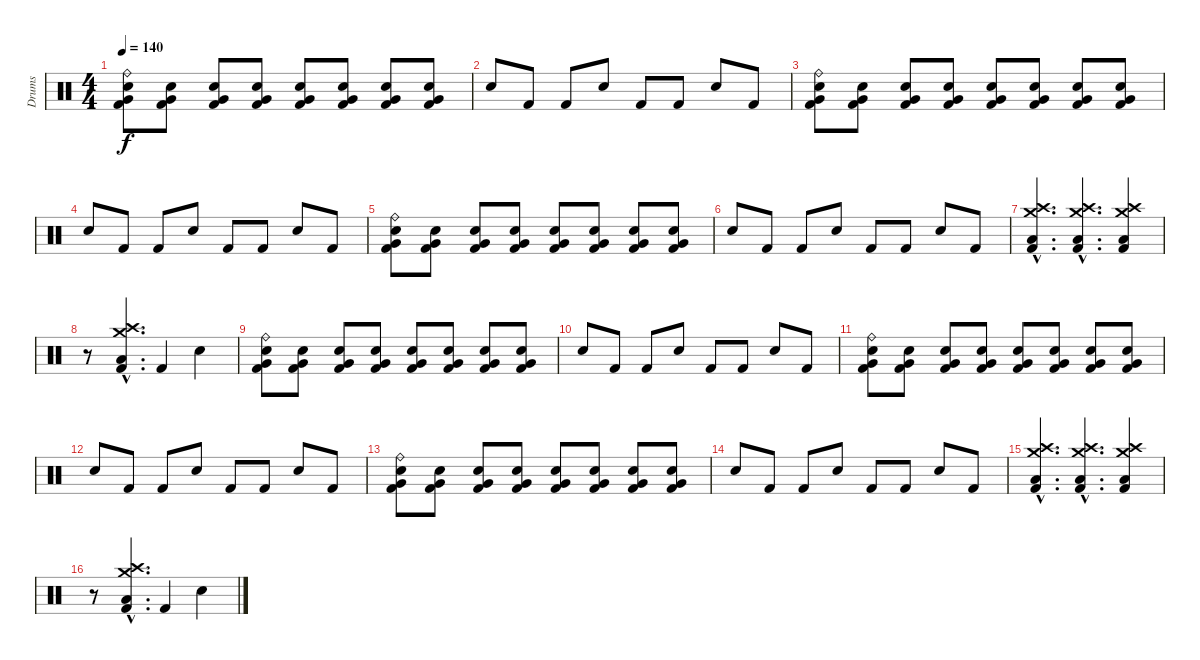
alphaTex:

\track ("Drums" "Drums") {instrument percussion}
\staff {score}
\articulation defaults
\ts (4 4)
\tempo 140
\clef neutral
\ks c
("Ride (bell)" "Snare (hit) 2" "Very Low Tom (hit)" "Kick (hit) 2").8{dy f} ("Snare (hit) 2" "Very Low Tom (hit)" "Kick (hit) 2").8 ("Snare (hit) 2" "Very Low Tom (hit)" "Kick (hit) 2").8 ("Snare (hit) 2" "Very Low Tom (hit)" "Kick (hit) 2").8 ("Snare (hit) 2" "Very Low Tom (hit)" "Kick (hit) 2").8 ("Snare (hit) 2" "Very Low Tom (hit)" "Kick (hit) 2").8 ("Snare (hit) 2" "Very Low Tom (hit)" "Kick (hit) 2").8 ("Snare (hit) 2" "Very Low Tom (hit)" "Kick (hit) 2").8 |
"Snare (hit) 2".8 "Kick (hit) 2".8 "Kick (hit) 2".8 "Snare (hit) 2".8 "Kick (hit) 2".8 "Kick (hit) 2".8 "Snare (hit) 2".8 "Kick (hit) 2".8 |
("Ride (bell)" "Snare (hit) 2" "Very Low Tom (hit)" "Kick (hit) 2").8 ("Snare (hit) 2" "Very Low Tom (hit)" "Kick (hit) 2").8 ("Snare (hit) 2" "Very Low Tom (hit)" "Kick (hit) 2").8 ("Snare (hit) 2" "Very Low Tom (hit)" "Kick (hit) 2").8 ("Snare (hit) 2" "Very Low Tom (hit)" "Kick (hit) 2").8 ("Snare (hit) 2" "Very Low Tom (hit)" "Kick (hit) 2").8 ("Snare (hit) 2" "Very Low Tom (hit)" "Kick (hit) 2").8 ("Snare (hit) 2" "Very Low Tom (hit)" "Kick (hit) 2").8 |
"Snare (hit) 2".8 "Kick (hit) 2".8 "Kick (hit) 2".8 "Snare (hit) 2".8 "Kick (hit) 2".8 "Kick (hit) 2".8 "Snare (hit) 2".8 "Kick (hit) 2".8 |
("Ride (bell)" "Snare (hit) 2" "Very Low Tom (hit)" "Kick (hit) 2").8 ("Snare (hit) 2" "Very Low Tom (hit)" "Kick (hit) 2").8 ("Snare (hit) 2" "Very Low Tom (hit)" "Kick (hit) 2").8 ("Snare (hit) 2" "Very Low Tom (hit)" "Kick (hit) 2").8 ("Snare (hit) 2" "Very Low Tom (hit)" "Kick (hit) 2").8 ("Snare (hit) 2" "Very Low Tom (hit)" "Kick (hit) 2").8 ("Snare (hit) 2" "Very Low Tom (hit)" "Kick (hit) 2").8 ("Snare (hit) 2" "Very Low Tom (hit)" "Kick (hit) 2").8 |
"Snare (hit) 2".8 "Kick (hit) 2".8 "Kick (hit) 2".8 "Snare (hit) 2".8 "Kick (hit) 2".8 "Kick (hit) 2".8 "Snare (hit) 2".8 "Kick (hit) 2".8 |
("Crash high (hit)"{hac} "Crash medium (hit)"{hac} "Low Floor Tom (hit)"{hac} "Kick (hit) 2"{hac}).4{d volume 16} ("Crash high (hit)"{hac} "Crash medium (hit)"{hac} "Low Floor Tom (hit)"{hac} "Kick (hit) 2"{hac}).4{d} ("Crash high (hit)" "Crash medium (hit)" "Low Floor Tom (hit)" "Kick (hit) 2").4 |
r.8 ("Crash high (hit)"{hac} "Crash medium (hit)"{hac} "Low Floor Tom (hit)"{hac} "Kick (hit) 2"{hac}).4{d} "Kick (hit) 2".4 "Snare (hit) 2".4 |
("Ride (bell)" "Snare (hit) 2" "Very Low Tom (hit)" "Kick (hit) 2").8 ("Snare (hit) 2" "Very Low Tom (hit)" "Kick (hit) 2").8 ("Snare (hit) 2" "Very Low Tom (hit)" "Kick (hit) 2").8 ("Snare (hit) 2" "Very Low Tom (hit)" "Kick (hit) 2").8 ("Snare (hit) 2" "Very Low Tom (hit)" "Kick (hit) 2").8 ("Snare (hit) 2" "Very Low Tom (hit)" "Kick (hit) 2").8 ("Snare (hit) 2" "Very Low Tom (hit)" "Kick (hit) 2").8 ("Snare (hit) 2" "Very Low Tom (hit)" "Kick (hit) 2").8 |
"Snare (hit) 2".8 "Kick (hit) 2".8 "Kick (hit) 2".8 "Snare (hit) 2".8 "Kick (hit) 2".8 "Kick (hit) 2".8 "Snare (hit) 2".8 "Kick (hit) 2".8 |
("Ride (bell)" "Snare (hit) 2" "Very Low Tom (hit)" "Kick (hit) 2").8 ("Snare (hit) 2" "Very Low Tom (hit)" "Kick (hit) 2").8 ("Snare (hit) 2" "Very Low Tom (hit)" "Kick (hit) 2").8 ("Snare (hit) 2" "Very Low Tom (hit)" "Kick (hit) 2").8 ("Snare (hit) 2" "Very Low Tom (hit)" "Kick (hit) 2").8 ("Snare (hit) 2" "Very Low Tom (hit)" "Kick (hit) 2").8 ("Snare (hit) 2" "Very Low Tom (hit)" "Kick (hit) 2").8 ("Snare (hit) 2" "Very Low Tom (hit)" "Kick (hit) 2").8 |
"Snare (hit) 2".8 "Kick (hit) 2".8 "Kick (hit) 2".8 "Snare (hit) 2".8 "Kick (hit) 2".8 "Kick (hit) 2".8 "Snare (hit) 2".8 "Kick (hit) 2".8 |
("Ride (bell)" "Snare (hit) 2" "Very Low Tom (hit)" "Kick (hit) 2").8 ("Snare (hit) 2" "Very Low Tom (hit)" "Kick (hit) 2").8 ("Snare (hit) 2" "Very Low Tom (hit)" "Kick (hit) 2").8 ("Snare (hit) 2" "Very Low Tom (hit)" "Kick (hit) 2").8 ("Snare (hit) 2" "Very Low Tom (hit)" "Kick (hit) 2").8 ("Snare (hit) 2" "Very Low Tom (hit)" "Kick (hit) 2").8 ("Snare (hit) 2" "Very Low Tom (hit)" "Kick (hit) 2").8 ("Snare (hit) 2" "Very Low Tom (hit)" "Kick (hit) 2").8 |
"Snare (hit) 2".8 "Kick (hit) 2".8 "Kick (hit) 2".8 "Snare (hit) 2".8 "Kick (hit) 2".8 "Kick (hit) 2".8 "Snare (hit) 2".8 "Kick (hit) 2".8 |
("Crash high (hit)"{hac} "Crash medium (hit)"{hac} "Low Floor Tom (hit)"{hac} "Kick (hit) 2"{hac}).4{d volume 16} ("Crash high (hit)"{hac} "Crash medium (hit)"{hac} "Low Floor Tom (hit)"{hac} "Kick (hit) 2"{hac}).4{d} ("Crash high (hit)" "Crash medium (hit)" "Low Floor Tom (hit)" "Kick (hit) 2").4 |
r.8 ("Crash high (hit)"{hac} "Crash medium (hit)"{hac} "Low Floor Tom (hit)"{hac} "Kick (hit) 2"{hac}).4{d} "Kick (hit) 2".4 "Snare (hit) 2".4
